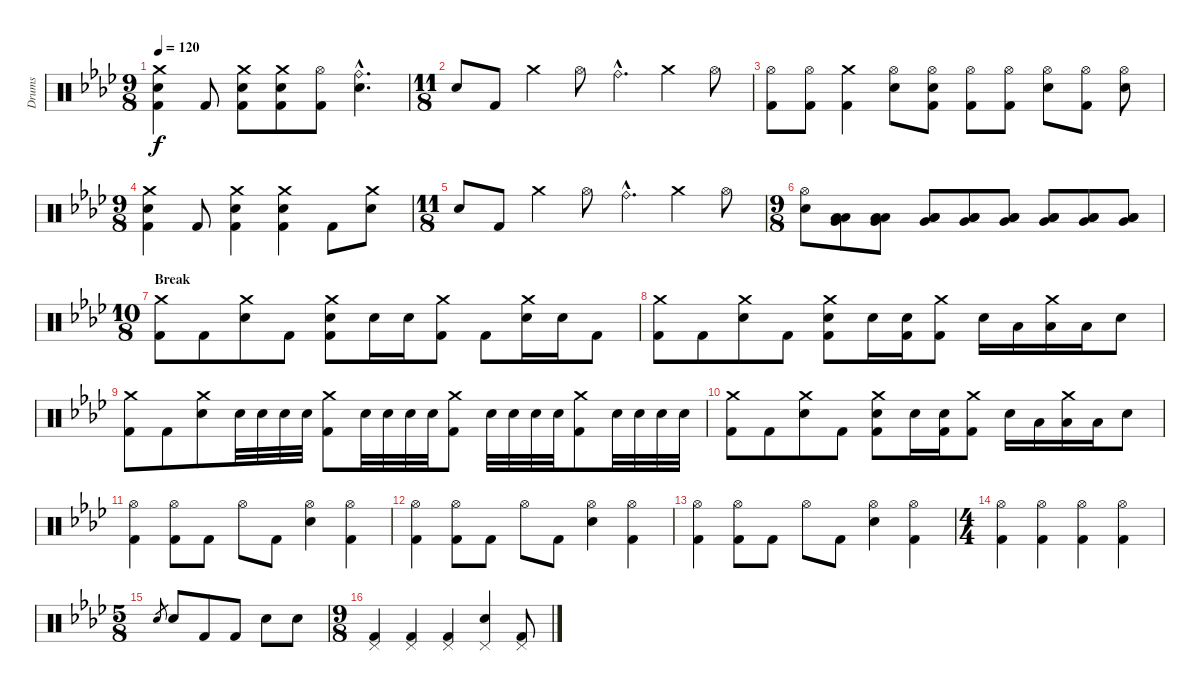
\track ("Drums" "Drums") {instrument percussion}
\staff {score}
\articulation defaults
\ts (9 8)
\tempo 120
\clef neutral
\ks ab
("Crash medium (hit)" "Electric Snare (hit)" "Kick (hit) 2").4{dy f} "Kick (hit) 2".8 ("Crash medium (hit)" "Electric Snare (hit)" "Kick (hit) 2").8 ("Crash medium (hit)" "Electric Snare (hit)" "Kick (hit) 2").8 ("Hi-Hat (open)" "Kick (hit) 2").8 ("Ride (bell)"{hac} "Electric Snare (hit)"{hac}).4{d} |
\ts (11 8)
"Electric Snare (hit)".8 "Kick (hit) 2".8 "Crash medium (hit)".4 "Hi-Hat (open)".8 "Ride (bell)"{hac}.4{d} "Crash medium (hit)".4 "Hi-Hat (open)".8 |
("Hi-Hat (open)" "Kick (hit) 2").8 ("Hi-Hat (open)" "Kick (hit) 2").8 ("Crash medium (hit)" "Kick (hit) 2").4 ("Hi-Hat (open)" "Electric Snare (hit)").8 ("Hi-Hat (open)" "Electric Snare (hit)" "Kick (hit) 2").8 ("Hi-Hat (open)" "Kick (hit) 2").8 ("Hi-Hat (open)" "Kick (hit) 2").8 ("Hi-Hat (open)" "Electric Snare (hit)").8 ("Hi-Hat (open)" "Kick (hit) 2").8 ("Hi-Hat (open)" "Electric Snare (hit)").8 |
\ts (9 8)
("Crash medium (hit)" "Electric Snare (hit)" "Kick (hit) 2").4 "Kick (hit) 2".8 ("Crash medium (hit)" "Electric Snare (hit)" "Kick (hit) 2").4 ("Crash medium (hit)" "Electric Snare (hit)" "Kick (hit) 2").4 "Kick (hit) 2".8 ("Crash medium (hit)" "Electric Snare (hit)").8 |
\ts (11 8)
"Electric Snare (hit)".8 "Kick (hit) 2".8 "Crash medium (hit)".4 "Hi-Hat (open)".8 "Ride (bell)"{hac}.4{d} "Crash medium (hit)".4 "Hi-Hat (open)".8 |
\ts (9 8)
("Hi-Hat (open)" "Electric Snare (hit)").8 ("Low Tom (hit)" "Very Low Tom (hit)" "Low Floor Tom (hit)").8 ("Low Tom (hit)" "Very Low Tom (hit)" "Low Floor Tom (hit)").8 ("Low Tom (hit)" "Very Low Tom (hit)" "Low Floor Tom (hit)").8 ("Low Tom (hit)" "Very Low Tom (hit)" "Low Floor Tom (hit)").8 ("Low Tom (hit)" "Very Low Tom (hit)" "Low Floor Tom (hit)").8 ("Low Tom (hit)" "Very Low Tom (hit)" "Low Floor Tom (hit)").8 ("Low Tom (hit)" "Very Low Tom (hit)" "Low Floor Tom (hit)").8 ("Low Tom (hit)" "Very Low Tom (hit)" "Low Floor Tom (hit)").8 |
\ts (10 8)
\section ("" "Break")
("Crash medium (hit)" "Kick (hit) 2").8 "Kick (hit) 2".8 ("Crash medium (hit)" "Electric Snare (hit)").8 "Kick (hit) 2".8 ("Crash medium (hit)" "Electric Snare (hit)" "Kick (hit) 2").8 "Electric Snare (hit)".16 "Electric Snare (hit)".16 ("Crash medium (hit)" "Kick (hit) 2").8 "Kick (hit) 2".8 ("Crash medium (hit)" "Electric Snare (hit)").16 "Electric Snare (hit)".16 "Kick (hit) 2".8 |
("Crash medium (hit)" "Kick (hit) 2").8 "Kick (hit) 2".8 ("Crash medium (hit)" "Electric Snare (hit)").8 "Kick (hit) 2".8 ("Crash medium (hit)" "Electric Snare (hit)" "Kick (hit) 2").8 "Electric Snare (hit)".16 ("Electric Snare (hit)" "Kick (hit) 2").16 ("Crash medium (hit)" "Kick (hit) 2").8 "Electric Snare (hit)".16 "Low Tom (hit)".16 ("Crash medium (hit)" "Low Tom (hit)").16 "Low Tom (hit)".16 "Electric Snare (hit)".8 |
("Crash medium (hit)" "Kick (hit) 2").8 "Kick (hit) 2".8 ("Crash medium (hit)" "Electric Snare (hit)").8 "Electric Snare (hit)".32 "Electric Snare (hit)".32 "Electric Snare (hit)".32 "Electric Snare (hit)".32 ("Crash medium (hit)" "Kick (hit) 2").8 "Electric Snare (hit)".32 "Electric Snare (hit)".32 "Electric Snare (hit)".32 "Electric Snare (hit)".32 ("Crash medium (hit)" "Kick (hit) 2").8 "Electric Snare (hit)".32 "Electric Snare (hit)".32 "Electric Snare (hit)".32 "Electric Snare (hit)".32 ("Crash medium (hit)" "Kick (hit) 2").8 "Electric Snare (hit)".32 "Electric Snare (hit)".32 "Electric Snare (hit)".32 "Electric Snare (hit)".32 |
("Crash medium (hit)" "Kick (hit) 2").8 "Kick (hit) 2".8 ("Crash medium (hit)" "Electric Snare (hit)").8 "Kick (hit) 2".8 ("Crash medium (hit)" "Electric Snare (hit)" "Kick (hit) 2").8 "Electric Snare (hit)".16 ("Electric Snare (hit)" "Kick (hit) 2").16 ("Crash medium (hit)" "Kick (hit) 2").8 "Electric Snare (hit)".16 "Low Tom (hit)".16 ("Crash medium (hit)" "Low Tom (hit)").16 "Low Tom (hit)".16 "Electric Snare (hit)".8 |
("Hi-Hat (open)" "Kick (hit) 2").4 ("Hi-Hat (open)" "Kick (hit) 2").8 "Kick (hit) 2".8 "Hi-Hat (open)".8 "Kick (hit) 2".8 ("Hi-Hat (open)" "Electric Snare (hit)").4 ("Hi-Hat (open)" "Kick (hit) 2").4 |
("Hi-Hat (open)" "Kick (hit) 2").4 ("Hi-Hat (open)" "Kick (hit) 2").8 "Kick (hit) 2".8 "Hi-Hat (open)".8 "Kick (hit) 2".8 ("Hi-Hat (open)" "Electric Snare (hit)").4 ("Hi-Hat (open)" "Kick (hit) 2").4 |
("Hi-Hat (open)" "Kick (hit) 2").4 ("Hi-Hat (open)" "Kick (hit) 2").8 "Kick (hit) 2".8 "Hi-Hat (open)".8 "Kick (hit) 2".8 ("Hi-Hat (open)" "Electric Snare (hit)").4 ("Hi-Hat (open)" "Kick (hit) 2").4 |
\ts (4 4)
("Hi-Hat (open)" "Kick (hit) 2").4 ("Hi-Hat (open)" "Kick (hit) 2").4 ("Hi-Hat (open)" "Kick (hit) 2").4 ("Hi-Hat (open)" "Kick (hit) 2").4 |
\ts (5 8)
"Electric Snare (hit)".8{gr} "Electric Snare (hit)".8 "Kick (hit) 2".8 "Kick (hit) 2".8 "Electric Snare (hit)".8 "Electric Snare (hit)".8 |
\ts (9 8)
("Pedal Hi-Hat (hit)" "Kick (hit) 2").4 ("Pedal Hi-Hat (hit)" "Kick (hit) 2").4 ("Pedal Hi-Hat (hit)" "Kick (hit) 2").4 ("Pedal Hi-Hat (hit)" "Electric Snare (hit)").4 ("Pedal Hi-Hat (hit)" "Kick (hit) 2").8
